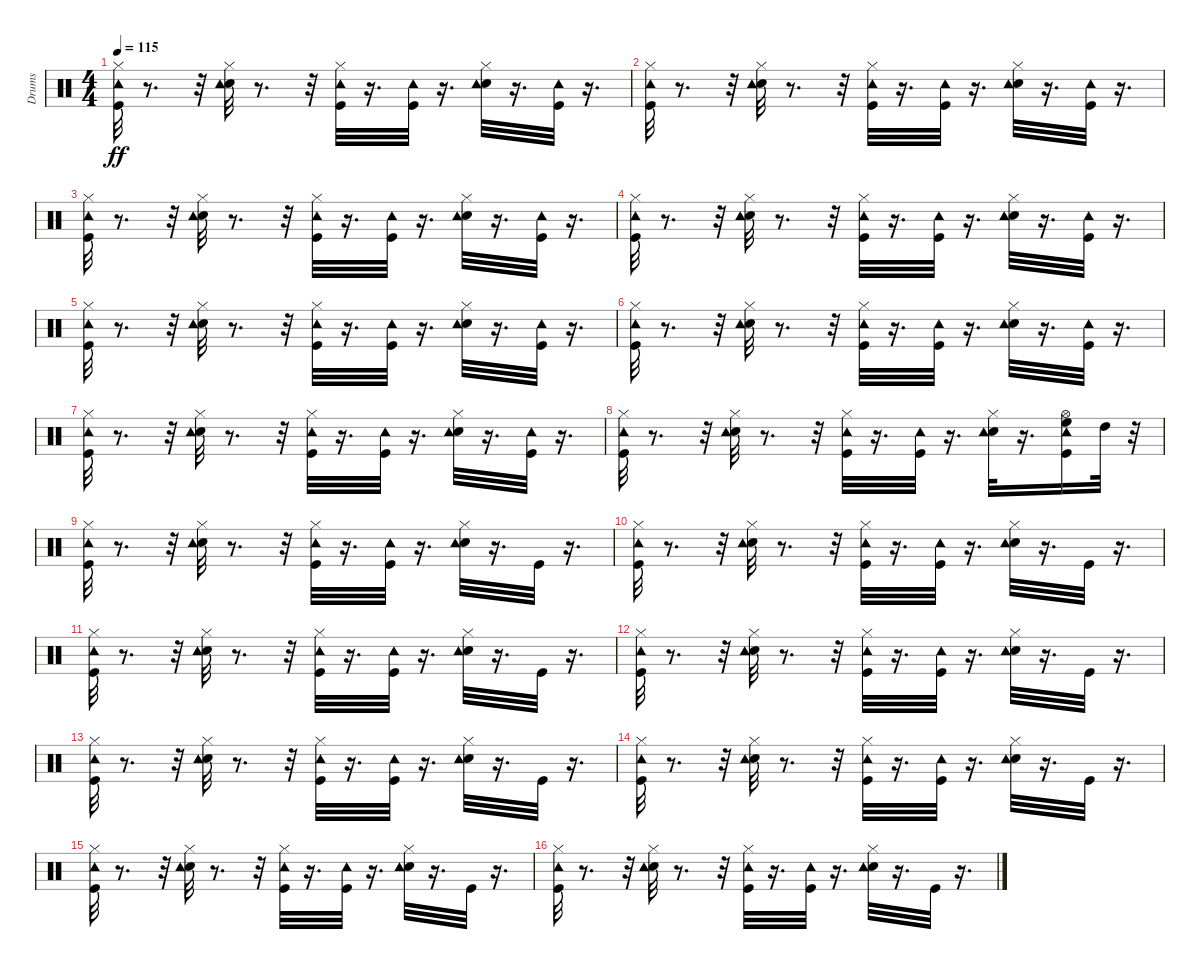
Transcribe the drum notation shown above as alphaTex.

\track ("Drums" "Drums") {instrument percussion}
\staff {score}
\articulation defaults
\ts (4 4)
\tempo 115
\clef neutral
\ks c
("Hi-Hat (closed)" "Kick (hit)" "Tambourine (hit)").32{dy ff} r.8{d} r.32 ("Hi-Hat (closed)" "Snare (hit) 2" "Tambourine (hit)").32 r.8{d} r.32 ("Hi-Hat (closed)" "Kick (hit)" "Tambourine (hit)").32 r.16{d} ("Kick (hit)" "Tambourine (hit)").32 r.16{d} ("Hi-Hat (closed)" "Snare (hit) 2" "Tambourine (hit)").32 r.16{d} ("Kick (hit)" "Tambourine (hit)").32 r.16{d} |
("Hi-Hat (closed)" "Kick (hit)" "Tambourine (hit)").32 r.8{d} r.32 ("Hi-Hat (closed)" "Snare (hit) 2" "Tambourine (hit)").32 r.8{d} r.32 ("Hi-Hat (closed)" "Kick (hit)" "Tambourine (hit)").32 r.16{d} ("Kick (hit)" "Tambourine (hit)").32 r.16{d} ("Hi-Hat (closed)" "Snare (hit) 2" "Tambourine (hit)").32 r.16{d} ("Kick (hit)" "Tambourine (hit)").32 r.16{d} |
("Hi-Hat (closed)" "Kick (hit)" "Tambourine (hit)").32 r.8{d} r.32 ("Hi-Hat (closed)" "Snare (hit) 2" "Tambourine (hit)").32 r.8{d} r.32 ("Hi-Hat (closed)" "Kick (hit)" "Tambourine (hit)").32 r.16{d} ("Kick (hit)" "Tambourine (hit)").32 r.16{d} ("Hi-Hat (closed)" "Snare (hit) 2" "Tambourine (hit)").32 r.16{d} ("Kick (hit)" "Tambourine (hit)").32 r.16{d} |
("Hi-Hat (closed)" "Kick (hit)" "Tambourine (hit)").32 r.8{d} r.32 ("Hi-Hat (closed)" "Snare (hit) 2" "Tambourine (hit)").32 r.8{d} r.32 ("Hi-Hat (closed)" "Kick (hit)" "Tambourine (hit)").32 r.16{d} ("Kick (hit)" "Tambourine (hit)").32 r.16{d} ("Hi-Hat (closed)" "Snare (hit) 2" "Tambourine (hit)").32 r.16{d} ("Kick (hit)" "Tambourine (hit)").32 r.16{d} |
("Hi-Hat (closed)" "Kick (hit)" "Tambourine (hit)").32 r.8{d} r.32 ("Hi-Hat (closed)" "Snare (hit) 2" "Tambourine (hit)").32 r.8{d} r.32 ("Hi-Hat (closed)" "Kick (hit)" "Tambourine (hit)").32 r.16{d} ("Kick (hit)" "Tambourine (hit)").32 r.16{d} ("Hi-Hat (closed)" "Snare (hit) 2" "Tambourine (hit)").32 r.16{d} ("Kick (hit)" "Tambourine (hit)").32 r.16{d} |
("Hi-Hat (closed)" "Kick (hit)" "Tambourine (hit)").32 r.8{d} r.32 ("Hi-Hat (closed)" "Snare (hit) 2" "Tambourine (hit)").32 r.8{d} r.32 ("Hi-Hat (closed)" "Kick (hit)" "Tambourine (hit)").32 r.16{d} ("Kick (hit)" "Tambourine (hit)").32 r.16{d} ("Hi-Hat (closed)" "Snare (hit) 2" "Tambourine (hit)").32 r.16{d} ("Kick (hit)" "Tambourine (hit)").32 r.16{d} |
("Hi-Hat (closed)" "Kick (hit)" "Tambourine (hit)").32 r.8{d} r.32 ("Hi-Hat (closed)" "Snare (hit) 2" "Tambourine (hit)").32 r.8{d} r.32 ("Hi-Hat (closed)" "Kick (hit)" "Tambourine (hit)").32 r.16{d} ("Kick (hit)" "Tambourine (hit)").32 r.16{d} ("Hi-Hat (closed)" "Snare (hit) 2" "Tambourine (hit)").32 r.16{d} ("Kick (hit)" "Tambourine (hit)").32 r.16{d} |
("Hi-Hat (closed)" "Kick (hit)" "Tambourine (hit)").32 r.8{d} r.32 ("Hi-Hat (closed)" "Snare (hit) 2" "Tambourine (hit)").32 r.8{d} r.32 ("Hi-Hat (closed)" "Kick (hit)" "Tambourine (hit)").32 r.16{d} ("Kick (hit)" "Tambourine (hit)").32 r.16{d} ("Hi-Hat (closed)" "Snare (hit) 2" "Tambourine (hit)").32 r.16{d} ("Kick (hit)" "Hi-Hat (open)" "Tambourine (hit)" "High Floor Tom (hit)").16 "High Tom (hit)".32 r.32 |
("Hi-Hat (closed)" "Kick (hit)" "Tambourine (hit)").32 r.8{d} r.32 ("Hi-Hat (closed)" "Hand Clap (hit)" "Tambourine (hit)").32 r.8{d} r.32 ("Hi-Hat (closed)" "Kick (hit)" "Tambourine (hit)").32 r.16{d} ("Kick (hit)" "Tambourine (hit)").32 r.16{d} ("Hi-Hat (closed)" "Hand Clap (hit)" "Tambourine (hit)").32 r.16{d} "Kick (hit)".32 r.16{d} |
("Hi-Hat (closed)" "Kick (hit)" "Tambourine (hit)").32 r.8{d} r.32 ("Hi-Hat (closed)" "Hand Clap (hit)" "Tambourine (hit)").32 r.8{d} r.32 ("Hi-Hat (closed)" "Kick (hit)" "Tambourine (hit)").32 r.16{d} ("Kick (hit)" "Tambourine (hit)").32 r.16{d} ("Hi-Hat (closed)" "Hand Clap (hit)" "Tambourine (hit)").32 r.16{d} "Kick (hit)".32 r.16{d} |
("Hi-Hat (closed)" "Kick (hit)" "Tambourine (hit)").32 r.8{d} r.32 ("Hi-Hat (closed)" "Hand Clap (hit)" "Tambourine (hit)").32 r.8{d} r.32 ("Hi-Hat (closed)" "Kick (hit)" "Tambourine (hit)").32 r.16{d} ("Kick (hit)" "Tambourine (hit)").32 r.16{d} ("Hi-Hat (closed)" "Hand Clap (hit)" "Tambourine (hit)").32 r.16{d} "Kick (hit)".32 r.16{d} |
("Hi-Hat (closed)" "Kick (hit)" "Tambourine (hit)").32 r.8{d} r.32 ("Hi-Hat (closed)" "Hand Clap (hit)" "Tambourine (hit)").32 r.8{d} r.32 ("Hi-Hat (closed)" "Kick (hit)" "Tambourine (hit)").32 r.16{d} ("Kick (hit)" "Tambourine (hit)").32 r.16{d} ("Hi-Hat (closed)" "Hand Clap (hit)" "Tambourine (hit)").32 r.16{d} "Kick (hit)".32 r.16{d} |
("Hi-Hat (closed)" "Kick (hit)" "Tambourine (hit)").32 r.8{d} r.32 ("Hi-Hat (closed)" "Hand Clap (hit)" "Tambourine (hit)").32 r.8{d} r.32 ("Hi-Hat (closed)" "Kick (hit)" "Tambourine (hit)").32 r.16{d} ("Kick (hit)" "Tambourine (hit)").32 r.16{d} ("Hi-Hat (closed)" "Hand Clap (hit)" "Tambourine (hit)").32 r.16{d} "Kick (hit)".32 r.16{d} |
("Hi-Hat (closed)" "Kick (hit)" "Tambourine (hit)").32 r.8{d} r.32 ("Hi-Hat (closed)" "Hand Clap (hit)" "Tambourine (hit)").32 r.8{d} r.32 ("Hi-Hat (closed)" "Kick (hit)" "Tambourine (hit)").32 r.16{d} ("Kick (hit)" "Tambourine (hit)").32 r.16{d} ("Hi-Hat (closed)" "Hand Clap (hit)" "Tambourine (hit)").32 r.16{d} "Kick (hit)".32 r.16{d} |
("Hi-Hat (closed)" "Kick (hit)" "Tambourine (hit)").32 r.8{d} r.32 ("Hi-Hat (closed)" "Hand Clap (hit)" "Tambourine (hit)").32 r.8{d} r.32 ("Hi-Hat (closed)" "Kick (hit)" "Tambourine (hit)").32 r.16{d} ("Kick (hit)" "Tambourine (hit)").32 r.16{d} ("Hi-Hat (closed)" "Hand Clap (hit)" "Tambourine (hit)").32 r.16{d} "Kick (hit)".32 r.16{d} |
("Hi-Hat (closed)" "Kick (hit)" "Tambourine (hit)").32 r.8{d} r.32 ("Hi-Hat (closed)" "Hand Clap (hit)" "Tambourine (hit)").32 r.8{d} r.32 ("Hi-Hat (closed)" "Kick (hit)" "Tambourine (hit)").32 r.16{d} ("Kick (hit)" "Tambourine (hit)").32 r.16{d} ("Hi-Hat (closed)" "Hand Clap (hit)" "Tambourine (hit)").32 r.16{d} "Kick (hit)".32 r.16{d}
